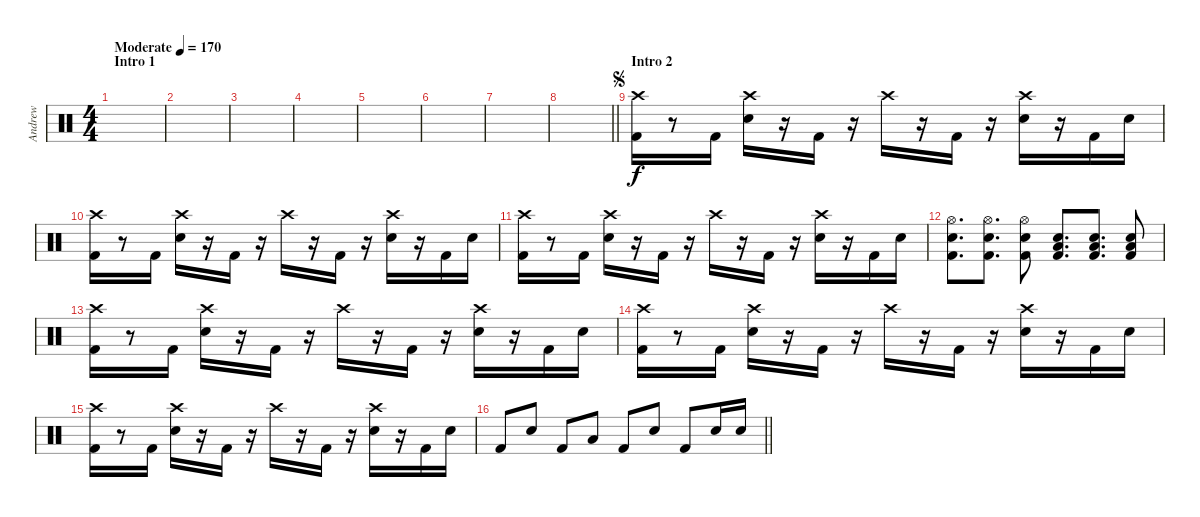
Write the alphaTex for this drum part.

\track ("Andrew" "Andrew") {instrument percussion}
\staff {score}
\articulation defaults
\ts (4 4)
\section ("" "Intro 1")
\tempo (170 "Moderate")
\clef neutral
\ks c
|
|
|
|
|
|
|
\barLineRight lightlight
|
\section ("" "Intro 2")
\jump segno
("Crash high (hit)" "Kick (hit) 2").16 r.8 "Kick (hit) 2".16 ("Crash high (hit)" "Electric Snare (hit)").16 r.16 "Kick (hit) 2".16 r.16 "Crash high (hit)".16 r.16 "Kick (hit) 2".16 r.16 ("Crash high (hit)" "Electric Snare (hit)").16 r.16 "Kick (hit) 2".16 "Electric Snare (hit)".16 |
("Crash high (hit)" "Kick (hit) 2").16 r.8 "Kick (hit) 2".16 ("Crash high (hit)" "Electric Snare (hit)").16 r.16 "Kick (hit) 2".16 r.16 "Crash high (hit)".16 r.16 "Kick (hit) 2".16 r.16 ("Crash high (hit)" "Electric Snare (hit)").16 r.16 "Kick (hit) 2".16 "Electric Snare (hit)".16 |
("Crash high (hit)" "Kick (hit) 2").16 r.8 "Kick (hit) 2".16 ("Crash high (hit)" "Electric Snare (hit)").16 r.16 "Kick (hit) 2".16 r.16 "Crash high (hit)".16 r.16 "Kick (hit) 2".16 r.16 ("Crash high (hit)" "Electric Snare (hit)").16 r.16 "Kick (hit) 2".16 "Electric Snare (hit)".16 |
("Hi-Hat (open)" "Electric Snare (hit)" "Kick (hit) 2").8{d} ("Hi-Hat (open)" "Electric Snare (hit)" "Kick (hit) 2").8{d} ("Hi-Hat (open)" "Electric Snare (hit)" "Kick (hit) 2").8 ("Low Floor Tom (hit)" "Electric Snare (hit)" "Kick (hit) 2").8{d} ("Low Floor Tom (hit)" "Electric Snare (hit)" "Kick (hit) 2").8{d} ("Low Floor Tom (hit)" "Electric Snare (hit)" "Kick (hit) 2").8 |
("Crash high (hit)" "Kick (hit) 2").16 r.8 "Kick (hit) 2".16 ("Crash high (hit)" "Electric Snare (hit)").16 r.16 "Kick (hit) 2".16 r.16 "Crash high (hit)".16 r.16 "Kick (hit) 2".16 r.16 ("Crash high (hit)" "Electric Snare (hit)").16 r.16 "Kick (hit) 2".16 "Electric Snare (hit)".16 |
("Crash high (hit)" "Kick (hit) 2").16 r.8 "Kick (hit) 2".16 ("Crash high (hit)" "Electric Snare (hit)").16 r.16 "Kick (hit) 2".16 r.16 "Crash high (hit)".16 r.16 "Kick (hit) 2".16 r.16 ("Crash high (hit)" "Electric Snare (hit)").16 r.16 "Kick (hit) 2".16 "Electric Snare (hit)".16 |
("Crash high (hit)" "Kick (hit) 2").16 r.8 "Kick (hit) 2".16 ("Crash high (hit)" "Electric Snare (hit)").16 r.16 "Kick (hit) 2".16 r.16 "Crash high (hit)".16 r.16 "Kick (hit) 2".16 r.16 ("Crash high (hit)" "Electric Snare (hit)").16 r.16 "Kick (hit) 2".16 "Electric Snare (hit)".16 |
\barLineRight lightlight "Kick (hit) 2".8 "Electric Snare (hit)".8 "Kick (hit) 2".8 "Low Tom (hit)".8 "Kick (hit) 2".8 "Electric Snare (hit)".8 "Kick (hit) 2".8 "Electric Snare (hit)".16 "Electric Snare (hit)".16
